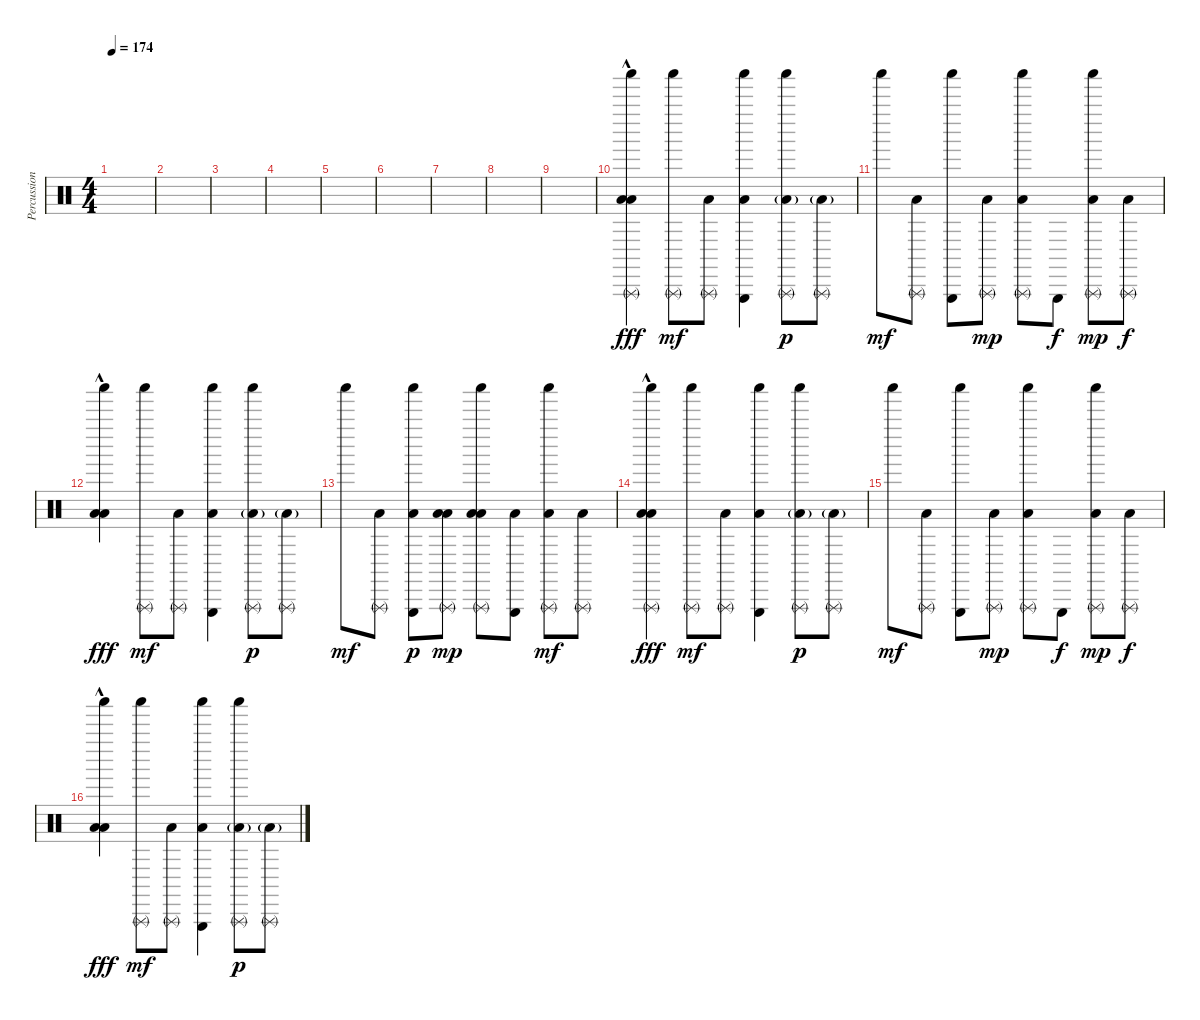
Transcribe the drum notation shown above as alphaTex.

\track ("Percussion" "Percussion") {instrument percussion}
\staff {score}
\articulation defaults
\ts (4 4)
\tempo 174
\clef neutral
\ks c
|
|
|
|
|
|
|
|
|
("Shaker (hit)" "Triangle (rnute)" "Low Tom (hit)"{hac} "Low Floor Tom (hit)"{hac}).4{dy fff} ("Shaker (hit)" "Triangle (rnute)").8{dy mf} ("Triangle (rnute)" "Low Floor Tom (hit)").8 ("Shaker (hit)" "Triangle (hit)" "Low Floor Tom (hit)").4 ("Shaker (hit)" "Triangle (rnute)" "Low Floor Tom (hit)"{g}).8{dy p} ("Triangle (rnute)" "Low Floor Tom (hit)"{g}).8 |
"Shaker (hit)".8{dy mf} ("Triangle (rnute)" "Low Floor Tom (hit)").8 ("Shaker (hit)" "Triangle (hit)").8 ("Triangle (rnute)" "Low Floor Tom (hit)").8{dy mp} ("Shaker (hit)" "Triangle (rnute)" "Low Floor Tom (hit)").8 "Triangle (hit)".8{dy f} ("Shaker (hit)" "Triangle (rnute)" "Low Tom (hit)").8{dy mp} ("Triangle (rnute)" "Low Tom (hit)").8{dy f} |
("Shaker (hit)" "Low Tom (hit)"{hac} "Low Floor Tom (hit)"{hac}).4{dy fff} ("Shaker (hit)" "Triangle (rnute)").8{dy mf} ("Triangle (rnute)" "Low Floor Tom (hit)").8 ("Shaker (hit)" "Triangle (hit)" "Low Floor Tom (hit)").4 ("Shaker (hit)" "Triangle (rnute)" "Low Floor Tom (hit)"{g}).8{dy p} ("Triangle (rnute)" "Low Floor Tom (hit)"{g}).8 |
"Shaker (hit)".8{dy mf} ("Triangle (rnute)" "Low Floor Tom (hit)").8 ("Shaker (hit)" "Triangle (hit)" "Low Tom (hit)").8{dy p} ("Triangle (rnute)" "Low Tom (hit)" "Low Floor Tom (hit)").8{dy mp} ("Shaker (hit)" "Triangle (rnute)" "Low Tom (hit)" "Low Floor Tom (hit)").8 ("Triangle (hit)" "Low Tom (hit)").8 ("Shaker (hit)" "Triangle (rnute)" "Low Tom (hit)").8{dy mf} ("Triangle (rnute)" "Low Tom (hit)").8 |
("Shaker (hit)" "Triangle (rnute)" "Low Tom (hit)"{hac} "Low Floor Tom (hit)"{hac}).4{dy fff} ("Shaker (hit)" "Triangle (rnute)").8{dy mf} ("Triangle (rnute)" "Low Floor Tom (hit)").8 ("Shaker (hit)" "Triangle (hit)" "Low Floor Tom (hit)").4 ("Shaker (hit)" "Triangle (rnute)" "Low Floor Tom (hit)"{g}).8{dy p} ("Triangle (rnute)" "Low Floor Tom (hit)"{g}).8 |
"Shaker (hit)".8{dy mf} ("Triangle (rnute)" "Low Floor Tom (hit)").8 ("Shaker (hit)" "Triangle (hit)").8 ("Triangle (rnute)" "Low Floor Tom (hit)").8{dy mp} ("Shaker (hit)" "Triangle (rnute)" "Low Floor Tom (hit)").8 "Triangle (hit)".8{dy f} ("Shaker (hit)" "Triangle (rnute)" "Low Tom (hit)").8{dy mp} ("Triangle (rnute)" "Low Tom (hit)").8{dy f} |
("Shaker (hit)" "Low Tom (hit)"{hac} "Low Floor Tom (hit)"{hac}).4{dy fff} ("Shaker (hit)" "Triangle (rnute)").8{dy mf} ("Triangle (rnute)" "Low Floor Tom (hit)").8 ("Shaker (hit)" "Triangle (hit)" "Low Floor Tom (hit)").4 ("Shaker (hit)" "Triangle (rnute)" "Low Floor Tom (hit)"{g}).8{dy p} ("Triangle (rnute)" "Low Floor Tom (hit)"{g}).8
